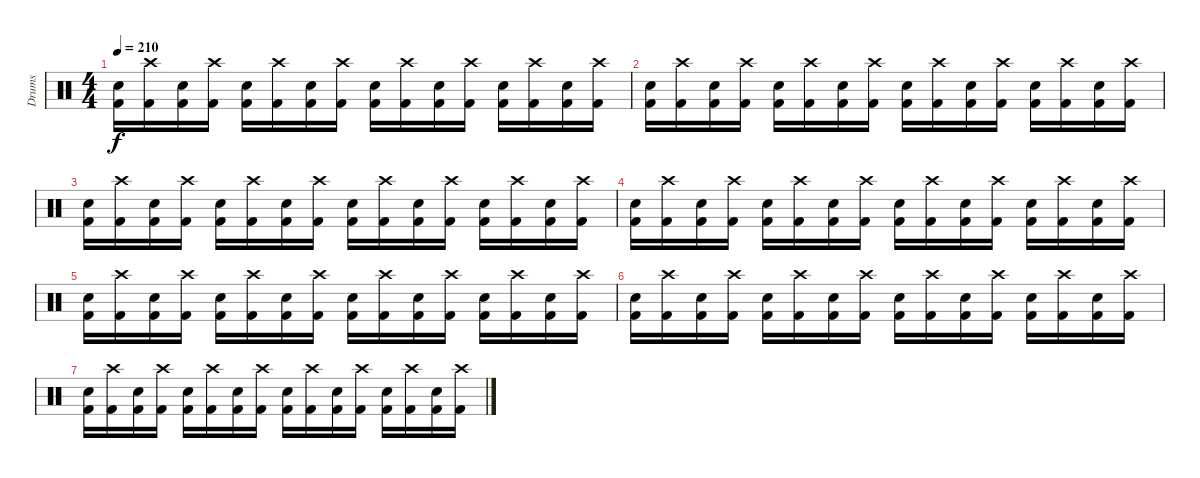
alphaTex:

\track ("Drums" "Drums") {instrument percussion}
\staff {score}
\articulation defaults
\ts (4 4)
\tempo 210
\clef neutral
\ks c
("Snare (hit) 2" "Kick (hit) 2").16{dy f} ("Crash high (hit)" "Kick (hit) 2").16 ("Snare (hit) 2" "Kick (hit) 2").16 ("Crash high (hit)" "Kick (hit) 2").16 ("Snare (hit) 2" "Kick (hit) 2").16 ("Crash high (hit)" "Kick (hit) 2").16 ("Snare (hit) 2" "Kick (hit) 2").16 ("Crash high (hit)" "Kick (hit) 2").16 ("Snare (hit) 2" "Kick (hit) 2").16 ("Crash high (hit)" "Kick (hit) 2").16 ("Snare (hit) 2" "Kick (hit) 2").16 ("Crash high (hit)" "Kick (hit) 2").16 ("Snare (hit) 2" "Kick (hit) 2").16 ("Crash high (hit)" "Kick (hit) 2").16 ("Snare (hit) 2" "Kick (hit) 2").16 ("Crash high (hit)" "Kick (hit) 2").16 |
("Snare (hit) 2" "Kick (hit) 2").16 ("Crash high (hit)" "Kick (hit) 2").16 ("Snare (hit) 2" "Kick (hit) 2").16 ("Crash high (hit)" "Kick (hit) 2").16 ("Snare (hit) 2" "Kick (hit) 2").16 ("Crash high (hit)" "Kick (hit) 2").16 ("Snare (hit) 2" "Kick (hit) 2").16 ("Crash high (hit)" "Kick (hit) 2").16 ("Snare (hit) 2" "Kick (hit) 2").16 ("Crash high (hit)" "Kick (hit) 2").16 ("Snare (hit) 2" "Kick (hit) 2").16 ("Crash high (hit)" "Kick (hit) 2").16 ("Snare (hit) 2" "Kick (hit) 2").16 ("Crash high (hit)" "Kick (hit) 2").16 ("Snare (hit) 2" "Kick (hit) 2").16 ("Crash high (hit)" "Kick (hit) 2").16 |
("Snare (hit) 2" "Kick (hit) 2").16 ("Crash high (hit)" "Kick (hit) 2").16 ("Snare (hit) 2" "Kick (hit) 2").16 ("Crash high (hit)" "Kick (hit) 2").16 ("Snare (hit) 2" "Kick (hit) 2").16 ("Crash high (hit)" "Kick (hit) 2").16 ("Snare (hit) 2" "Kick (hit) 2").16 ("Crash high (hit)" "Kick (hit) 2").16 ("Snare (hit) 2" "Kick (hit) 2").16 ("Crash high (hit)" "Kick (hit) 2").16 ("Snare (hit) 2" "Kick (hit) 2").16 ("Crash high (hit)" "Kick (hit) 2").16 ("Snare (hit) 2" "Kick (hit) 2").16 ("Crash high (hit)" "Kick (hit) 2").16 ("Snare (hit) 2" "Kick (hit) 2").16 ("Crash high (hit)" "Kick (hit) 2").16 |
("Snare (hit) 2" "Kick (hit) 2").16 ("Crash high (hit)" "Kick (hit) 2").16 ("Snare (hit) 2" "Kick (hit) 2").16 ("Crash high (hit)" "Kick (hit) 2").16 ("Snare (hit) 2" "Kick (hit) 2").16 ("Crash high (hit)" "Kick (hit) 2").16 ("Snare (hit) 2" "Kick (hit) 2").16 ("Crash high (hit)" "Kick (hit) 2").16 ("Snare (hit) 2" "Kick (hit) 2").16 ("Crash high (hit)" "Kick (hit) 2").16 ("Snare (hit) 2" "Kick (hit) 2").16 ("Crash high (hit)" "Kick (hit) 2").16 ("Snare (hit) 2" "Kick (hit) 2").16 ("Crash high (hit)" "Kick (hit) 2").16 ("Snare (hit) 2" "Kick (hit) 2").16 ("Crash high (hit)" "Kick (hit) 2").16 |
("Snare (hit) 2" "Kick (hit) 2").16 ("Crash high (hit)" "Kick (hit) 2").16 ("Snare (hit) 2" "Kick (hit) 2").16 ("Crash high (hit)" "Kick (hit) 2").16 ("Snare (hit) 2" "Kick (hit) 2").16 ("Crash high (hit)" "Kick (hit) 2").16 ("Snare (hit) 2" "Kick (hit) 2").16 ("Crash high (hit)" "Kick (hit) 2").16 ("Snare (hit) 2" "Kick (hit) 2").16 ("Crash high (hit)" "Kick (hit) 2").16 ("Snare (hit) 2" "Kick (hit) 2").16 ("Crash high (hit)" "Kick (hit) 2").16 ("Snare (hit) 2" "Kick (hit) 2").16 ("Crash high (hit)" "Kick (hit) 2").16 ("Snare (hit) 2" "Kick (hit) 2").16 ("Crash high (hit)" "Kick (hit) 2").16 |
("Snare (hit) 2" "Kick (hit) 2").16 ("Crash high (hit)" "Kick (hit) 2").16 ("Snare (hit) 2" "Kick (hit) 2").16 ("Crash high (hit)" "Kick (hit) 2").16 ("Snare (hit) 2" "Kick (hit) 2").16 ("Crash high (hit)" "Kick (hit) 2").16 ("Snare (hit) 2" "Kick (hit) 2").16 ("Crash high (hit)" "Kick (hit) 2").16 ("Snare (hit) 2" "Kick (hit) 2").16 ("Crash high (hit)" "Kick (hit) 2").16 ("Snare (hit) 2" "Kick (hit) 2").16 ("Crash high (hit)" "Kick (hit) 2").16 ("Snare (hit) 2" "Kick (hit) 2").16 ("Crash high (hit)" "Kick (hit) 2").16 ("Snare (hit) 2" "Kick (hit) 2").16 ("Crash high (hit)" "Kick (hit) 2").16 |
("Snare (hit) 2" "Kick (hit) 2").16 ("Crash high (hit)" "Kick (hit) 2").16 ("Snare (hit) 2" "Kick (hit) 2").16 ("Crash high (hit)" "Kick (hit) 2").16 ("Snare (hit) 2" "Kick (hit) 2").16 ("Crash high (hit)" "Kick (hit) 2").16 ("Snare (hit) 2" "Kick (hit) 2").16 ("Crash high (hit)" "Kick (hit) 2").16 ("Snare (hit) 2" "Kick (hit) 2").16 ("Crash high (hit)" "Kick (hit) 2").16 ("Snare (hit) 2" "Kick (hit) 2").16 ("Crash high (hit)" "Kick (hit) 2").16 ("Snare (hit) 2" "Kick (hit) 2").16 ("Crash high (hit)" "Kick (hit) 2").16 ("Snare (hit) 2" "Kick (hit) 2").16 ("Crash high (hit)" "Kick (hit) 2").16
